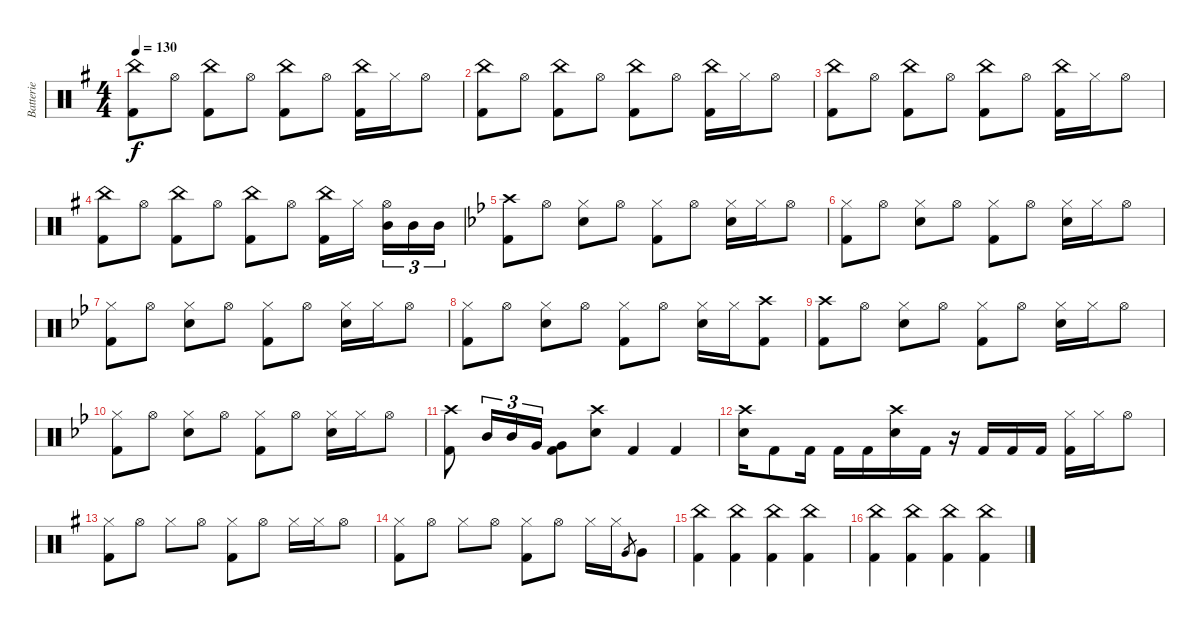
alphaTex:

\track ("Batterie" "Batterie") {instrument percussion}
\staff {score}
\articulation defaults
\ts (4 4)
\tempo 130
\clef neutral
\ks g
("China (hit)" "Kick (hit) 2").8{dy f} "Hi-Hat (open)".8 ("China (hit)" "Kick (hit) 2").8 "Hi-Hat (open)".8 ("China (hit)" "Kick (hit) 2").8 "Hi-Hat (open)".8 ("China (hit)" "Kick (hit) 2").16 "Hi-Hat (closed)".16 "Hi-Hat (open)".8 |
("China (hit)" "Kick (hit) 2").8 "Hi-Hat (open)".8 ("China (hit)" "Kick (hit) 2").8 "Hi-Hat (open)".8 ("China (hit)" "Kick (hit) 2").8 "Hi-Hat (open)".8 ("China (hit)" "Kick (hit) 2").16 "Hi-Hat (closed)".16 "Hi-Hat (open)".8 |
("China (hit)" "Kick (hit) 2").8 "Hi-Hat (open)".8 ("China (hit)" "Kick (hit) 2").8 "Hi-Hat (open)".8 ("China (hit)" "Kick (hit) 2").8 "Hi-Hat (open)".8 ("China (hit)" "Kick (hit) 2").16 "Hi-Hat (closed)".16 "Hi-Hat (open)".8 |
("China (hit)" "Kick (hit) 2").8 "Hi-Hat (open)".8 ("China (hit)" "Kick (hit) 2").8 "Hi-Hat (open)".8 ("China (hit)" "Kick (hit) 2").8 "Hi-Hat (open)".8 ("China (hit)" "Kick (hit) 2").16 "Hi-Hat (closed)".16 ("Hi-Hat (open)" "Mid Tom (hit)").16{tu (3 2)} "Mid Tom (hit)".16{tu (3 2)} "Mid Tom (hit)".16{tu (3 2)} |
\ks bb
("Crash high (hit)" "Kick (hit) 2").8 "Hi-Hat (open)".8 ("Hi-Hat (closed)" "Snare (hit) 2").8 "Hi-Hat (open)".8 ("Hi-Hat (closed)" "Kick (hit) 2").8 "Hi-Hat (open)".8 ("Hi-Hat (closed)" "Snare (hit) 2").16 "Hi-Hat (closed)".16 "Hi-Hat (open)".8 |
("Hi-Hat (closed)" "Kick (hit) 2").8 "Hi-Hat (open)".8 ("Hi-Hat (closed)" "Snare (hit) 2").8 "Hi-Hat (open)".8 ("Hi-Hat (closed)" "Kick (hit) 2").8 "Hi-Hat (open)".8 ("Hi-Hat (closed)" "Snare (hit) 2").16 "Hi-Hat (closed)".16 "Hi-Hat (open)".8 |
("Hi-Hat (closed)" "Kick (hit) 2").8 "Hi-Hat (open)".8 ("Hi-Hat (closed)" "Snare (hit) 2").8 "Hi-Hat (open)".8 ("Hi-Hat (closed)" "Kick (hit) 2").8 "Hi-Hat (open)".8 ("Hi-Hat (closed)" "Snare (hit) 2").16 "Hi-Hat (closed)".16 "Hi-Hat (open)".8 |
("Hi-Hat (closed)" "Kick (hit) 2").8 "Hi-Hat (open)".8 ("Hi-Hat (closed)" "Snare (hit) 2").8 "Hi-Hat (open)".8 ("Hi-Hat (closed)" "Kick (hit) 2").8 "Hi-Hat (open)".8 ("Hi-Hat (closed)" "Snare (hit) 2").16 "Hi-Hat (closed)".16 ("Crash high (hit)" "Kick (hit) 2").8 |
("Crash high (hit)" "Kick (hit) 2").8 "Hi-Hat (open)".8 ("Hi-Hat (closed)" "Snare (hit) 2").8 "Hi-Hat (open)".8 ("Hi-Hat (closed)" "Kick (hit) 2").8 "Hi-Hat (open)".8 ("Hi-Hat (closed)" "Snare (hit) 2").16 "Hi-Hat (closed)".16 "Hi-Hat (open)".8 |
("Hi-Hat (closed)" "Kick (hit) 2").8 "Hi-Hat (open)".8 ("Hi-Hat (closed)" "Snare (hit) 2").8 "Hi-Hat (open)".8 ("Hi-Hat (closed)" "Kick (hit) 2").8 "Hi-Hat (open)".8 ("Hi-Hat (closed)" "Snare (hit) 2").16 "Hi-Hat (closed)".16 "Hi-Hat (open)".8 |
("Crash high (hit)" "Kick (hit) 2").8 "Mid Tom (hit)".16{tu (3 2)} "Mid Tom (hit)".16{tu (3 2)} "Very Low Tom (hit)".16{tu (3 2)} ("Very Low Tom (hit)" "Kick (hit) 2").8 ("Crash high (hit)" "Snare (hit) 2").8 "Kick (hit) 2".4 "Kick (hit) 2".4 |
("Crash high (hit)" "Snare (hit) 2").16 "Kick (hit) 2".8 "Kick (hit) 2".16 "Kick (hit) 2".16 "Kick (hit) 2".16 ("Crash high (hit)" "Snare (hit) 2").16 "Kick (hit) 2".16 r.16 "Kick (hit) 2".16 "Kick (hit) 2".16 "Kick (hit) 2".16 ("Hi-Hat (closed)" "Kick (hit) 2").16 "Hi-Hat (closed)".16 "Hi-Hat (open)".8 |
\ks g
("Hi-Hat (closed)" "Kick (hit) 2").8 "Hi-Hat (open)".8 "Hi-Hat (closed)".8 "Hi-Hat (open)".8 ("Hi-Hat (closed)" "Kick (hit) 2").8 "Hi-Hat (open)".8 "Hi-Hat (closed)".16 "Hi-Hat (closed)".16 "Hi-Hat (open)".8 |
("Hi-Hat (closed)" "Kick (hit) 2").8 "Hi-Hat (open)".8 "Hi-Hat (closed)".8 "Hi-Hat (open)".8 ("Hi-Hat (closed)" "Kick (hit) 2").8 "Hi-Hat (open)".8 "Hi-Hat (closed)".16 "Hi-Hat (closed)".16 "Very Low Tom (hit)".8{gr} "Very Low Tom (hit)".8 |
("China (hit)" "Kick (hit) 2").4 ("China (hit)" "Kick (hit) 2").4 ("China (hit)" "Kick (hit) 2").4 ("China (hit)" "Kick (hit) 2").4 |
("China (hit)" "Kick (hit) 2").4 ("China (hit)" "Kick (hit) 2").4 ("China (hit)" "Kick (hit) 2").4 ("China (hit)" "Kick (hit) 2").4
